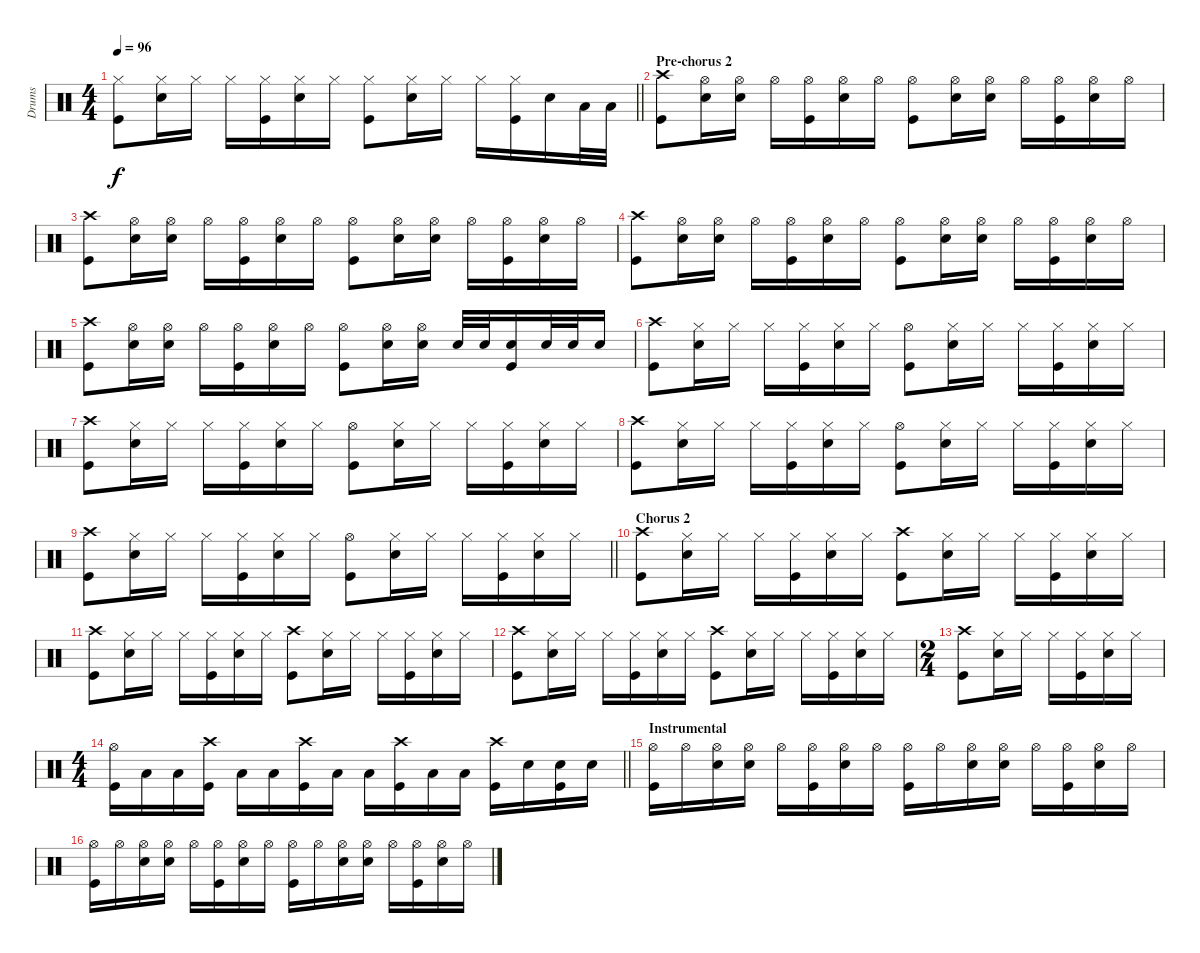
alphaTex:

\track ("Drums" "Drums") {instrument percussion}
\staff {score}
\articulation defaults
\ts (4 4)
\tempo 96
\clef neutral
\barLineRight lightlight
\ks c
("Hi-Hat (closed)" "Kick (hit)").8{dy f} ("Hi-Hat (closed)" "Snare (hit) 2").16 "Hi-Hat (closed)".16 "Hi-Hat (closed)".16 ("Hi-Hat (closed)" "Kick (hit)").16 ("Hi-Hat (closed)" "Snare (hit) 2").16 "Hi-Hat (closed)".16 ("Hi-Hat (closed)" "Kick (hit)").8 ("Hi-Hat (closed)" "Snare (hit) 2").16 "Hi-Hat (closed)".16 "Hi-Hat (closed)".16 ("Hi-Hat (closed)" "Kick (hit)").16 "Snare (hit) 2".16 "Low Tom (hit)".32 "Low Tom (hit)".32 |
\section ("" "Pre-chorus 2")
("Crash high (hit)" "Kick (hit)").8 ("Hi-Hat (open)" "Snare (hit) 2").16 ("Hi-Hat (open)" "Snare (hit) 2").16 "Hi-Hat (open)".16 ("Hi-Hat (open)" "Kick (hit)").16 ("Hi-Hat (open)" "Snare (hit) 2").16 "Hi-Hat (open)".16 ("Hi-Hat (open)" "Kick (hit)").8 ("Hi-Hat (open)" "Snare (hit) 2").16 ("Hi-Hat (open)" "Snare (hit) 2").16 "Hi-Hat (open)".16 ("Hi-Hat (open)" "Kick (hit)").16 ("Hi-Hat (open)" "Snare (hit) 2").16 "Hi-Hat (open)".16 |
("Crash high (hit)" "Kick (hit)").8 ("Hi-Hat (open)" "Snare (hit) 2").16 ("Hi-Hat (open)" "Snare (hit) 2").16 "Hi-Hat (open)".16 ("Hi-Hat (open)" "Kick (hit)").16 ("Hi-Hat (open)" "Snare (hit) 2").16 "Hi-Hat (open)".16 ("Hi-Hat (open)" "Kick (hit)").8 ("Hi-Hat (open)" "Snare (hit) 2").16 ("Hi-Hat (open)" "Snare (hit) 2").16 "Hi-Hat (open)".16 ("Hi-Hat (open)" "Kick (hit)").16 ("Hi-Hat (open)" "Snare (hit) 2").16 "Hi-Hat (open)".16 |
("Crash high (hit)" "Kick (hit)").8 ("Hi-Hat (open)" "Snare (hit) 2").16 ("Hi-Hat (open)" "Snare (hit) 2").16 "Hi-Hat (open)".16 ("Hi-Hat (open)" "Kick (hit)").16 ("Hi-Hat (open)" "Snare (hit) 2").16 "Hi-Hat (open)".16 ("Hi-Hat (open)" "Kick (hit)").8 ("Hi-Hat (open)" "Snare (hit) 2").16 ("Hi-Hat (open)" "Snare (hit) 2").16 "Hi-Hat (open)".16 ("Hi-Hat (open)" "Kick (hit)").16 ("Hi-Hat (open)" "Snare (hit) 2").16 "Hi-Hat (open)".16 |
("Crash high (hit)" "Kick (hit)").8 ("Hi-Hat (open)" "Snare (hit) 2").16 ("Hi-Hat (open)" "Snare (hit) 2").16 "Hi-Hat (open)".16 ("Hi-Hat (open)" "Kick (hit)").16 ("Hi-Hat (open)" "Snare (hit) 2").16 "Hi-Hat (open)".16 ("Hi-Hat (open)" "Kick (hit)").8 ("Hi-Hat (open)" "Snare (hit) 2").16 ("Hi-Hat (open)" "Snare (hit) 2").16 "Snare (hit) 2".32 "Snare (hit) 2".32 ("Snare (hit) 2" "Kick (hit)").16 "Snare (hit) 2".32 "Snare (hit) 2".32 "Snare (hit) 2".16 |
("Crash high (hit)" "Kick (hit)").8 ("Hi-Hat (closed)" "Snare (hit) 2").16 "Hi-Hat (closed)".16 "Hi-Hat (closed)".16 ("Hi-Hat (closed)" "Kick (hit)").16 ("Hi-Hat (closed)" "Snare (hit) 2").16 "Hi-Hat (closed)".16 ("Hi-Hat (open)" "Kick (hit)").8 ("Hi-Hat (closed)" "Snare (hit) 2").16 "Hi-Hat (closed)".16 "Hi-Hat (closed)".16 ("Hi-Hat (closed)" "Kick (hit)").16 ("Hi-Hat (closed)" "Snare (hit) 2").16 "Hi-Hat (closed)".16 |
("Crash high (hit)" "Kick (hit)").8 ("Hi-Hat (closed)" "Snare (hit) 2").16 "Hi-Hat (closed)".16 "Hi-Hat (closed)".16 ("Hi-Hat (closed)" "Kick (hit)").16 ("Hi-Hat (closed)" "Snare (hit) 2").16 "Hi-Hat (closed)".16 ("Hi-Hat (open)" "Kick (hit)").8 ("Hi-Hat (closed)" "Snare (hit) 2").16 "Hi-Hat (closed)".16 "Hi-Hat (closed)".16 ("Hi-Hat (closed)" "Kick (hit)").16 ("Hi-Hat (closed)" "Snare (hit) 2").16 "Hi-Hat (closed)".16 |
("Crash high (hit)" "Kick (hit)").8 ("Hi-Hat (closed)" "Snare (hit) 2").16 "Hi-Hat (closed)".16 "Hi-Hat (closed)".16 ("Hi-Hat (closed)" "Kick (hit)").16 ("Hi-Hat (closed)" "Snare (hit) 2").16 "Hi-Hat (closed)".16 ("Hi-Hat (open)" "Kick (hit)").8 ("Hi-Hat (closed)" "Snare (hit) 2").16 "Hi-Hat (closed)".16 "Hi-Hat (closed)".16 ("Hi-Hat (closed)" "Kick (hit)").16 ("Hi-Hat (closed)" "Snare (hit) 2").16 "Hi-Hat (closed)".16 |
\barLineRight lightlight
("Crash high (hit)" "Kick (hit)").8 ("Hi-Hat (closed)" "Snare (hit) 2").16 "Hi-Hat (closed)".16 "Hi-Hat (closed)".16 ("Hi-Hat (closed)" "Kick (hit)").16 ("Hi-Hat (closed)" "Snare (hit) 2").16 "Hi-Hat (closed)".16 ("Hi-Hat (open)" "Kick (hit)").8 ("Hi-Hat (closed)" "Snare (hit) 2").16 "Hi-Hat (closed)".16 "Hi-Hat (closed)".16 ("Hi-Hat (closed)" "Kick (hit)").16 ("Hi-Hat (closed)" "Snare (hit) 2").16 "Hi-Hat (closed)".16 |
\section ("" "Chorus 2")
("Crash high (hit)" "Kick (hit)").8 ("Hi-Hat (closed)" "Snare (hit) 2").16 "Hi-Hat (closed)".16 "Hi-Hat (closed)".16 ("Hi-Hat (closed)" "Kick (hit)").16 ("Hi-Hat (closed)" "Snare (hit) 2").16 "Hi-Hat (closed)".16 ("Crash high (hit)" "Kick (hit)").8 ("Hi-Hat (closed)" "Snare (hit) 2").16 "Hi-Hat (closed)".16 "Hi-Hat (closed)".16 ("Hi-Hat (closed)" "Kick (hit)").16 ("Hi-Hat (closed)" "Snare (hit) 2").16 "Hi-Hat (closed)".16 |
("Crash high (hit)" "Kick (hit)").8 ("Hi-Hat (closed)" "Snare (hit) 2").16 "Hi-Hat (closed)".16 "Hi-Hat (closed)".16 ("Hi-Hat (closed)" "Kick (hit)").16 ("Hi-Hat (closed)" "Snare (hit) 2").16 "Hi-Hat (closed)".16 ("Crash high (hit)" "Kick (hit)").8 ("Hi-Hat (closed)" "Snare (hit) 2").16 "Hi-Hat (closed)".16 "Hi-Hat (closed)".16 ("Hi-Hat (closed)" "Kick (hit)").16 ("Hi-Hat (closed)" "Snare (hit) 2").16 "Hi-Hat (closed)".16 |
("Crash high (hit)" "Kick (hit)").8 ("Hi-Hat (closed)" "Snare (hit) 2").16 "Hi-Hat (closed)".16 "Hi-Hat (closed)".16 ("Hi-Hat (closed)" "Kick (hit)").16 ("Hi-Hat (closed)" "Snare (hit) 2").16 "Hi-Hat (closed)".16 ("Crash high (hit)" "Kick (hit)").8 ("Hi-Hat (closed)" "Snare (hit) 2").16 "Hi-Hat (closed)".16 "Hi-Hat (closed)".16 ("Hi-Hat (closed)" "Kick (hit)").16 ("Hi-Hat (closed)" "Snare (hit) 2").16 "Hi-Hat (closed)".16 |
\ts (2 4)
("Crash high (hit)" "Kick (hit)").8 ("Hi-Hat (closed)" "Snare (hit) 2").16 "Hi-Hat (closed)".16 "Hi-Hat (closed)".16 ("Hi-Hat (closed)" "Kick (hit)").16 ("Hi-Hat (closed)" "Snare (hit) 2").16 "Hi-Hat (closed)".16 |
\ts (4 4)
\barLineRight lightlight
("Hi-Hat (open)" "Kick (hit)").16 "Low Tom (hit)".16 "Low Tom (hit)".16 ("Crash high (hit)" "Kick (hit)").16 "Low Tom (hit)".16 "Low Tom (hit)".16 ("Crash high (hit)" "Kick (hit)").16 "Low Tom (hit)".16 "Low Tom (hit)".16 ("Crash high (hit)" "Kick (hit)").16 "Low Tom (hit)".16 "Low Tom (hit)".16 ("Crash high (hit)" "Kick (hit)").16 "Snare (hit) 2".16 ("Snare (hit) 2" "Kick (hit)").16 "Snare (hit) 2".16 |
\section ("" "Instrumental")
("Hi-Hat (open)" "Kick (hit)").16 "Hi-Hat (open)".16 ("Hi-Hat (open)" "Snare (hit) 2").16 ("Hi-Hat (open)" "Snare (hit) 2").16 "Hi-Hat (open)".16 ("Hi-Hat (open)" "Kick (hit)").16 ("Hi-Hat (open)" "Snare (hit) 2").16 "Hi-Hat (open)".16 ("Hi-Hat (open)" "Kick (hit)").16 "Hi-Hat (open)".16 ("Hi-Hat (open)" "Snare (hit) 2").16 ("Hi-Hat (open)" "Snare (hit) 2").16 "Hi-Hat (open)".16 ("Hi-Hat (open)" "Kick (hit)").16 ("Hi-Hat (open)" "Snare (hit) 2").16 "Hi-Hat (open)".16 |
("Hi-Hat (open)" "Kick (hit)").16 "Hi-Hat (open)".16 ("Hi-Hat (open)" "Snare (hit) 2").16 ("Hi-Hat (open)" "Snare (hit) 2").16 "Hi-Hat (open)".16 ("Hi-Hat (open)" "Kick (hit)").16 ("Hi-Hat (open)" "Snare (hit) 2").16 "Hi-Hat (open)".16 ("Hi-Hat (open)" "Kick (hit)").16 "Hi-Hat (open)".16 ("Hi-Hat (open)" "Snare (hit) 2").16 ("Hi-Hat (open)" "Snare (hit) 2").16 "Hi-Hat (open)".16 ("Hi-Hat (open)" "Kick (hit)").16 ("Hi-Hat (open)" "Snare (hit) 2").16 "Hi-Hat (open)".16
